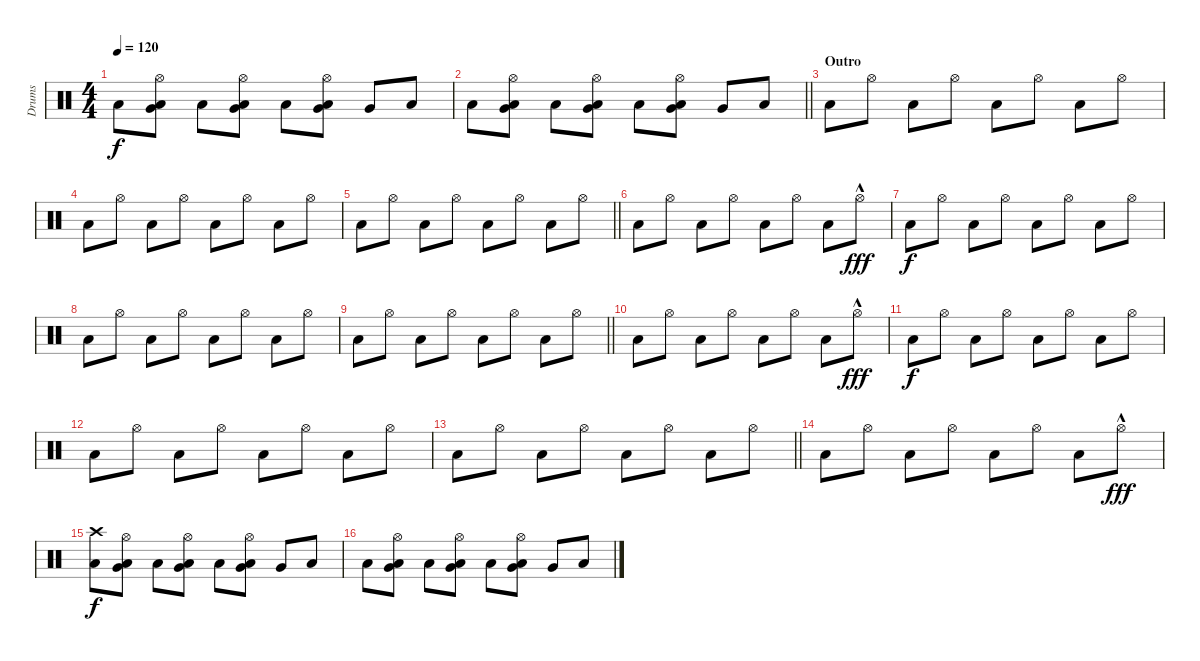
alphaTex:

\track ("Drums" "Drums") {instrument percussion}
\staff {score}
\articulation defaults
\ts (4 4)
\tempo 120
\clef neutral
\ks c "Low Floor Tom (hit)".8{dy f}
("Hi-Hat (open)" "Low Tom (hit)" "Very Low Tom (hit)").8 "Low Floor Tom (hit)".8 ("Hi-Hat (open)" "Low Tom (hit)" "Very Low Tom (hit)").8 "Low Floor Tom (hit)".8 ("Hi-Hat (open)" "Low Tom (hit)" "Very Low Tom (hit)").8 "Very Low Tom (hit)".8 "Low Floor Tom (hit)".8 |
\barLineRight lightlight "Low Floor Tom (hit)".8
("Hi-Hat (open)" "Low Tom (hit)" "Very Low Tom (hit)").8 "Low Floor Tom (hit)".8 ("Hi-Hat (open)" "Low Tom (hit)" "Very Low Tom (hit)").8 "Low Floor Tom (hit)".8 ("Hi-Hat (open)" "Low Tom (hit)" "Very Low Tom (hit)").8 "Very Low Tom (hit)".8 "Low Floor Tom (hit)".8 |
\section ("" "Outro")
"Low Floor Tom (hit)".8 "Hi-Hat (open)".8 "Low Floor Tom (hit)".8 "Hi-Hat (open)".8 "Low Floor Tom (hit)".8 "Hi-Hat (open)".8 "Low Floor Tom (hit)".8 "Hi-Hat (open)".8 |
"Low Floor Tom (hit)".8 "Hi-Hat (open)".8 "Low Floor Tom (hit)".8 "Hi-Hat (open)".8 "Low Floor Tom (hit)".8 "Hi-Hat (open)".8 "Low Floor Tom (hit)".8 "Hi-Hat (open)".8 |
\barLineRight lightlight "Low Floor Tom (hit)".8 "Hi-Hat (open)".8 "Low Floor Tom (hit)".8 "Hi-Hat (open)".8 "Low Floor Tom (hit)".8 "Hi-Hat (open)".8 "Low Floor Tom (hit)".8 "Hi-Hat (open)".8
|
"Low Floor Tom (hit)".8 "Hi-Hat (open)".8 "Low Floor Tom (hit)".8 "Hi-Hat (open)".8 "Low Floor Tom (hit)".8 "Hi-Hat (open)".8 "Low Floor Tom (hit)".8 "Hi-Hat (open)"{hac}.8{dy fff} |
"Low Floor Tom (hit)".8{dy f} "Hi-Hat (open)".8 "Low Floor Tom (hit)".8 "Hi-Hat (open)".8 "Low Floor Tom (hit)".8 "Hi-Hat (open)".8 "Low Floor Tom (hit)".8 "Hi-Hat (open)".8 |
"Low Floor Tom (hit)".8 "Hi-Hat (open)".8 "Low Floor Tom (hit)".8 "Hi-Hat (open)".8 "Low Floor Tom (hit)".8 "Hi-Hat (open)".8 "Low Floor Tom (hit)".8 "Hi-Hat (open)".8 |
\barLineRight lightlight "Low Floor Tom (hit)".8 "Hi-Hat (open)".8 "Low Floor Tom (hit)".8 "Hi-Hat (open)".8 "Low Floor Tom (hit)".8 "Hi-Hat (open)".8 "Low Floor Tom (hit)".8 "Hi-Hat (open)".8
|
"Low Floor Tom (hit)".8 "Hi-Hat (open)".8 "Low Floor Tom (hit)".8 "Hi-Hat (open)".8 "Low Floor Tom (hit)".8 "Hi-Hat (open)".8 "Low Floor Tom (hit)".8 "Hi-Hat (open)"{hac}.8{dy fff} |
"Low Floor Tom (hit)".8{dy f} "Hi-Hat (open)".8 "Low Floor Tom (hit)".8 "Hi-Hat (open)".8 "Low Floor Tom (hit)".8 "Hi-Hat (open)".8 "Low Floor Tom (hit)".8 "Hi-Hat (open)".8 |
"Low Floor Tom (hit)".8 "Hi-Hat (open)".8 "Low Floor Tom (hit)".8 "Hi-Hat (open)".8 "Low Floor Tom (hit)".8 "Hi-Hat (open)".8 "Low Floor Tom (hit)".8 "Hi-Hat (open)".8 |
\barLineRight lightlight "Low Floor Tom (hit)".8 "Hi-Hat (open)".8 "Low Floor Tom (hit)".8 "Hi-Hat (open)".8 "Low Floor Tom (hit)".8 "Hi-Hat (open)".8 "Low Floor Tom (hit)".8 "Hi-Hat (open)".8
|
"Low Floor Tom (hit)".8 "Hi-Hat (open)".8 "Low Floor Tom (hit)".8 "Hi-Hat (open)".8 "Low Floor Tom (hit)".8 "Hi-Hat (open)".8 "Low Floor Tom (hit)".8 "Hi-Hat (open)"{hac}.8{dy fff} |
("Crash high (hit)" "Low Floor Tom (hit)").8{dy f} ("Hi-Hat (open)" "Low Tom (hit)" "Very Low Tom (hit)").8 "Low Floor Tom (hit)".8 ("Hi-Hat (open)" "Low Tom (hit)" "Very Low Tom (hit)").8 "Low Floor Tom (hit)".8 ("Hi-Hat (open)" "Low Tom (hit)" "Very Low Tom (hit)").8 "Very Low Tom (hit)".8 "Low Floor Tom (hit)".8 |
"Low Floor Tom (hit)".8 ("Hi-Hat (open)" "Low Tom (hit)" "Very Low Tom (hit)").8 "Low Floor Tom (hit)".8 ("Hi-Hat (open)" "Low Tom (hit)" "Very Low Tom (hit)").8 "Low Floor Tom (hit)".8 ("Hi-Hat (open)" "Low Tom (hit)" "Very Low Tom (hit)").8 "Very Low Tom (hit)".8 "Low Floor Tom (hit)".8
